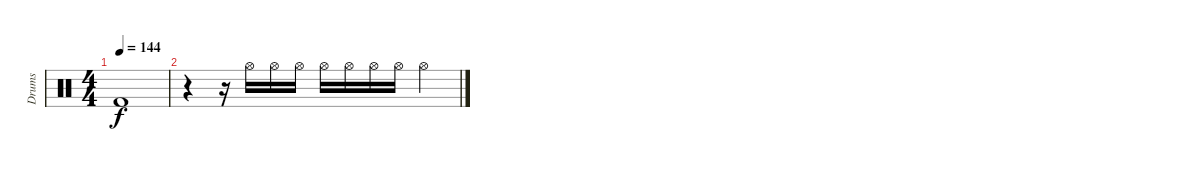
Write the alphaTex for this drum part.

\track ("Drums" "Drums") {instrument percussion}
\staff {score}
\articulation defaults
\ts (4 4)
\tempo 144
\clef neutral
\ks c "Kick (hit) 2".1{dy f}
|
r.4 r.16 "Hi-Hat (open)".16 "Hi-Hat (open)".16 "Hi-Hat (open)".16 "Hi-Hat (open)".16 "Hi-Hat (open)".16 "Hi-Hat (open)".16 "Hi-Hat (open)".16 "Hi-Hat (open)".4
